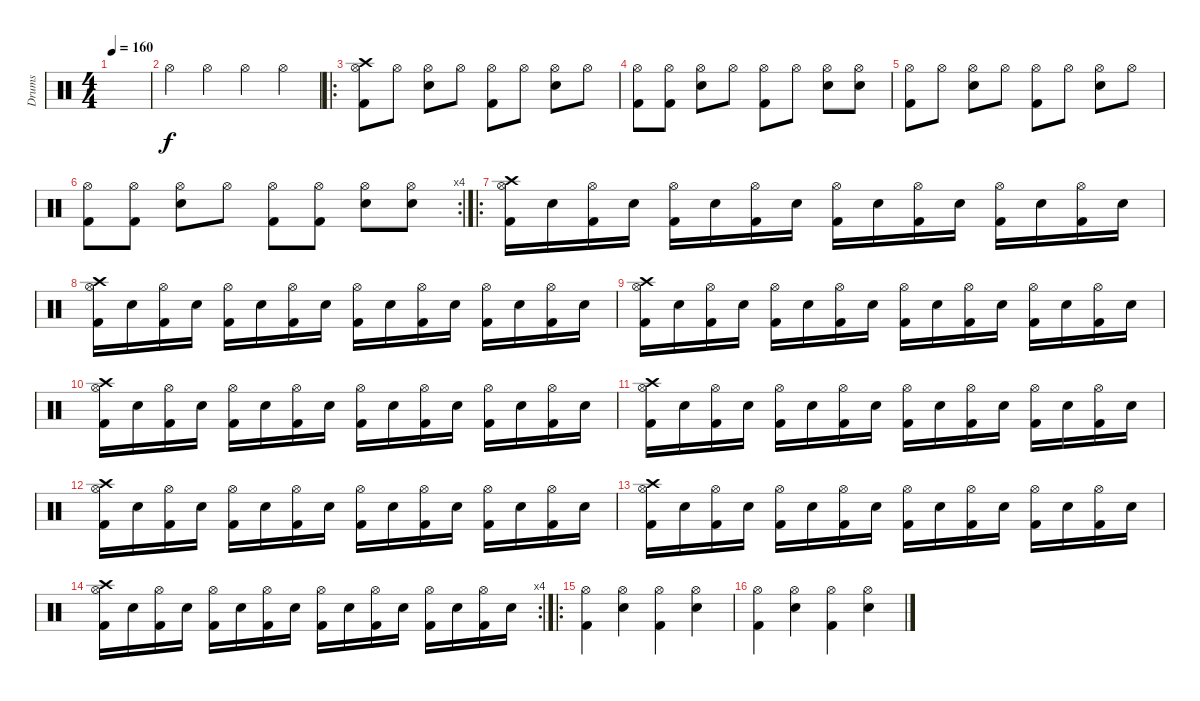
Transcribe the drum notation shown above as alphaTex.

\track ("Drums" "Drums") {instrument percussion}
\staff {score}
\articulation defaults
\ts (4 4)
\tempo 160
\clef neutral
\ks c
|
"Hi-Hat (open)".4 "Hi-Hat (open)".4 "Hi-Hat (open)".4 "Hi-Hat (open)".4 |
\ro
("Kick (hit) 2" "Hi-Hat (open)" "Crash high (hit)").8 "Hi-Hat (open)".8 ("Snare (hit) 2" "Hi-Hat (open)").8 "Hi-Hat (open)".8 ("Kick (hit) 2" "Hi-Hat (open)").8 "Hi-Hat (open)".8 ("Snare (hit) 2" "Hi-Hat (open)").8 "Hi-Hat (open)".8 |
("Kick (hit) 2" "Hi-Hat (open)").8 ("Kick (hit) 2" "Hi-Hat (open)").8 ("Snare (hit) 2" "Hi-Hat (open)").8 "Hi-Hat (open)".8 ("Kick (hit) 2" "Hi-Hat (open)").8 "Hi-Hat (open)".8 ("Snare (hit) 2" "Hi-Hat (open)").8 ("Snare (hit) 2" "Hi-Hat (open)").8 |
("Kick (hit) 2" "Hi-Hat (open)").8 "Hi-Hat (open)".8 ("Snare (hit) 2" "Hi-Hat (open)").8 "Hi-Hat (open)".8 ("Kick (hit) 2" "Hi-Hat (open)").8 "Hi-Hat (open)".8 ("Snare (hit) 2" "Hi-Hat (open)").8 "Hi-Hat (open)".8 |
\rc 4
("Kick (hit) 2" "Hi-Hat (open)").8 ("Kick (hit) 2" "Hi-Hat (open)").8 ("Snare (hit) 2" "Hi-Hat (open)").8 "Hi-Hat (open)".8 ("Kick (hit) 2" "Hi-Hat (open)").8 ("Kick (hit) 2" "Hi-Hat (open)").8 ("Snare (hit) 2" "Hi-Hat (open)").8 ("Snare (hit) 2" "Hi-Hat (open)").8 |
\ro
("Kick (hit) 2" "Hi-Hat (open)" "Crash high (hit)").16 "Snare (hit) 2".16 ("Kick (hit) 2" "Hi-Hat (open)").16 "Snare (hit) 2".16 ("Kick (hit) 2" "Hi-Hat (open)").16 "Snare (hit) 2".16 ("Kick (hit) 2" "Hi-Hat (open)").16 "Snare (hit) 2".16 ("Kick (hit) 2" "Hi-Hat (open)").16 "Snare (hit) 2".16 ("Kick (hit) 2" "Hi-Hat (open)").16 "Snare (hit) 2".16 ("Kick (hit) 2" "Hi-Hat (open)").16 "Snare (hit) 2".16 ("Kick (hit) 2" "Hi-Hat (open)").16 "Snare (hit) 2".16 |
("Kick (hit) 2" "Hi-Hat (open)" "Crash high (hit)").16 "Snare (hit) 2".16 ("Kick (hit) 2" "Hi-Hat (open)").16 "Snare (hit) 2".16 ("Kick (hit) 2" "Hi-Hat (open)").16 "Snare (hit) 2".16 ("Kick (hit) 2" "Hi-Hat (open)").16 "Snare (hit) 2".16 ("Kick (hit) 2" "Hi-Hat (open)").16 "Snare (hit) 2".16 ("Kick (hit) 2" "Hi-Hat (open)").16 "Snare (hit) 2".16 ("Kick (hit) 2" "Hi-Hat (open)").16 "Snare (hit) 2".16 ("Kick (hit) 2" "Hi-Hat (open)").16 "Snare (hit) 2".16 |
("Kick (hit) 2" "Hi-Hat (open)" "Crash high (hit)").16 "Snare (hit) 2".16 ("Kick (hit) 2" "Hi-Hat (open)").16 "Snare (hit) 2".16 ("Kick (hit) 2" "Hi-Hat (open)").16 "Snare (hit) 2".16 ("Kick (hit) 2" "Hi-Hat (open)").16 "Snare (hit) 2".16 ("Kick (hit) 2" "Hi-Hat (open)").16 "Snare (hit) 2".16 ("Kick (hit) 2" "Hi-Hat (open)").16 "Snare (hit) 2".16 ("Kick (hit) 2" "Hi-Hat (open)").16 "Snare (hit) 2".16 ("Kick (hit) 2" "Hi-Hat (open)").16 "Snare (hit) 2".16 |
("Kick (hit) 2" "Hi-Hat (open)" "Crash high (hit)").16 "Snare (hit) 2".16 ("Kick (hit) 2" "Hi-Hat (open)").16 "Snare (hit) 2".16 ("Kick (hit) 2" "Hi-Hat (open)").16 "Snare (hit) 2".16 ("Kick (hit) 2" "Hi-Hat (open)").16 "Snare (hit) 2".16 ("Kick (hit) 2" "Hi-Hat (open)").16 "Snare (hit) 2".16 ("Kick (hit) 2" "Hi-Hat (open)").16 "Snare (hit) 2".16 ("Kick (hit) 2" "Hi-Hat (open)").16 "Snare (hit) 2".16 ("Kick (hit) 2" "Hi-Hat (open)").16 "Snare (hit) 2".16 |
("Kick (hit) 2" "Hi-Hat (open)" "Crash high (hit)").16 "Snare (hit) 2".16 ("Kick (hit) 2" "Hi-Hat (open)").16 "Snare (hit) 2".16 ("Kick (hit) 2" "Hi-Hat (open)").16 "Snare (hit) 2".16 ("Kick (hit) 2" "Hi-Hat (open)").16 "Snare (hit) 2".16 ("Kick (hit) 2" "Hi-Hat (open)").16 "Snare (hit) 2".16 ("Kick (hit) 2" "Hi-Hat (open)").16 "Snare (hit) 2".16 ("Kick (hit) 2" "Hi-Hat (open)").16 "Snare (hit) 2".16 ("Kick (hit) 2" "Hi-Hat (open)").16 "Snare (hit) 2".16 |
("Kick (hit) 2" "Hi-Hat (open)" "Crash high (hit)").16 "Snare (hit) 2".16 ("Kick (hit) 2" "Hi-Hat (open)").16 "Snare (hit) 2".16 ("Kick (hit) 2" "Hi-Hat (open)").16 "Snare (hit) 2".16 ("Kick (hit) 2" "Hi-Hat (open)").16 "Snare (hit) 2".16 ("Kick (hit) 2" "Hi-Hat (open)").16 "Snare (hit) 2".16 ("Kick (hit) 2" "Hi-Hat (open)").16 "Snare (hit) 2".16 ("Kick (hit) 2" "Hi-Hat (open)").16 "Snare (hit) 2".16 ("Kick (hit) 2" "Hi-Hat (open)").16 "Snare (hit) 2".16 |
("Kick (hit) 2" "Hi-Hat (open)" "Crash high (hit)").16 "Snare (hit) 2".16 ("Kick (hit) 2" "Hi-Hat (open)").16 "Snare (hit) 2".16 ("Kick (hit) 2" "Hi-Hat (open)").16 "Snare (hit) 2".16 ("Kick (hit) 2" "Hi-Hat (open)").16 "Snare (hit) 2".16 ("Kick (hit) 2" "Hi-Hat (open)").16 "Snare (hit) 2".16 ("Kick (hit) 2" "Hi-Hat (open)").16 "Snare (hit) 2".16 ("Kick (hit) 2" "Hi-Hat (open)").16 "Snare (hit) 2".16 ("Kick (hit) 2" "Hi-Hat (open)").16 "Snare (hit) 2".16 |
\rc 4
("Kick (hit) 2" "Hi-Hat (open)" "Crash high (hit)").16 "Snare (hit) 2".16 ("Kick (hit) 2" "Hi-Hat (open)").16 "Snare (hit) 2".16 ("Kick (hit) 2" "Hi-Hat (open)").16 "Snare (hit) 2".16 ("Kick (hit) 2" "Hi-Hat (open)").16 "Snare (hit) 2".16 ("Kick (hit) 2" "Hi-Hat (open)").16 "Snare (hit) 2".16 ("Kick (hit) 2" "Hi-Hat (open)").16 "Snare (hit) 2".16 ("Kick (hit) 2" "Hi-Hat (open)").16 "Snare (hit) 2".16 ("Kick (hit) 2" "Hi-Hat (open)").16 "Snare (hit) 2".16 |
\ro
("Kick (hit) 2" "Hi-Hat (open)").4 ("Snare (hit) 2" "Hi-Hat (open)").4 ("Kick (hit) 2" "Hi-Hat (open)").4 ("Snare (hit) 2" "Hi-Hat (open)").4 |
("Kick (hit) 2" "Hi-Hat (open)").4 ("Snare (hit) 2" "Hi-Hat (open)").4 ("Kick (hit) 2" "Hi-Hat (open)").4 ("Snare (hit) 2" "Hi-Hat (open)").4
